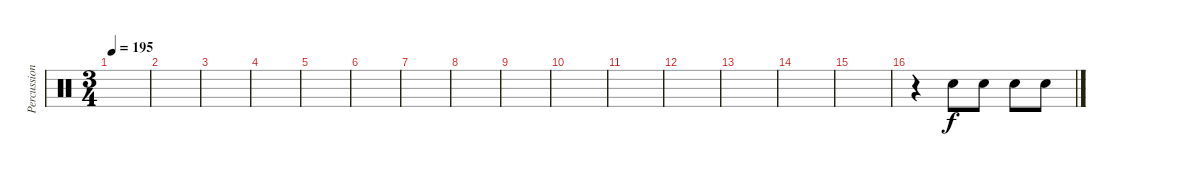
\track ("Percussion" "Percussion") {instrument percussion}
\staff {score}
\articulation defaults
\ts (3 4)
\tempo 195
\clef neutral
\ks c
|
|
|
|
|
|
|
|
|
|
|
|
|
|
|
r.4 "Electric Snare (hit)".8 "Electric Snare (hit)".8{dy f} "Snare (hit) 2".8 "Snare (hit) 2".8
